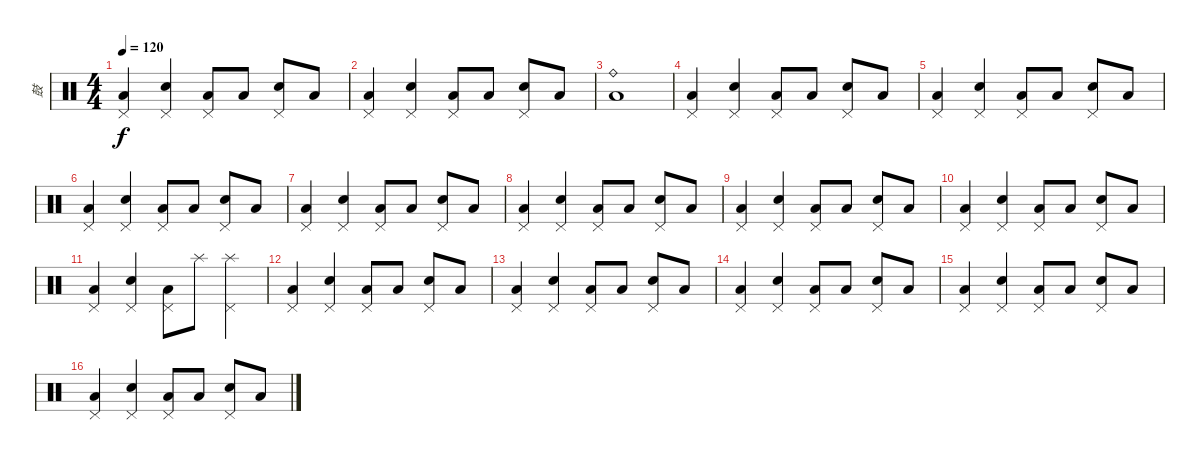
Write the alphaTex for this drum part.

\track ("鼓" "鼓") {instrument percussion}
\staff {score}
\articulation defaults
\ts (4 4)
\tempo 120
\clef neutral
\ks c
("Pedal Hi-Hat (hit)" "Low Floor Tom (hit)").4{dy f} ("Pedal Hi-Hat (hit)" "Snare (hit) 2").4 ("Pedal Hi-Hat (hit)" "Low Floor Tom (hit)").8 "Low Floor Tom (hit)".8 ("Pedal Hi-Hat (hit)" "Snare (hit) 2").8 "Low Floor Tom (hit)".8 |
("Pedal Hi-Hat (hit)" "Low Floor Tom (hit)").4 ("Pedal Hi-Hat (hit)" "Snare (hit) 2").4 ("Pedal Hi-Hat (hit)" "Low Floor Tom (hit)").8 "Low Floor Tom (hit)".8 ("Pedal Hi-Hat (hit)" "Snare (hit) 2").8 "Low Floor Tom (hit)".8 |
("Ride (bell)" "Low Floor Tom (hit)").1 |
("Pedal Hi-Hat (hit)" "Low Floor Tom (hit)").4 ("Pedal Hi-Hat (hit)" "Snare (hit) 2").4 ("Pedal Hi-Hat (hit)" "Low Floor Tom (hit)").8 "Low Floor Tom (hit)".8 ("Pedal Hi-Hat (hit)" "Snare (hit) 2").8 "Low Floor Tom (hit)".8 |
("Pedal Hi-Hat (hit)" "Low Floor Tom (hit)").4 ("Pedal Hi-Hat (hit)" "Snare (hit) 2").4 ("Pedal Hi-Hat (hit)" "Low Floor Tom (hit)").8 "Low Floor Tom (hit)".8 ("Pedal Hi-Hat (hit)" "Snare (hit) 2").8 "Low Floor Tom (hit)".8 |
("Pedal Hi-Hat (hit)" "Low Floor Tom (hit)").4 ("Pedal Hi-Hat (hit)" "Snare (hit) 2").4 ("Pedal Hi-Hat (hit)" "Low Floor Tom (hit)").8 "Low Floor Tom (hit)".8 ("Pedal Hi-Hat (hit)" "Snare (hit) 2").8 "Low Floor Tom (hit)".8 |
("Pedal Hi-Hat (hit)" "Low Floor Tom (hit)").4 ("Pedal Hi-Hat (hit)" "Snare (hit) 2").4 ("Pedal Hi-Hat (hit)" "Low Floor Tom (hit)").8 "Low Floor Tom (hit)".8 ("Pedal Hi-Hat (hit)" "Snare (hit) 2").8 "Low Floor Tom (hit)".8 |
("Pedal Hi-Hat (hit)" "Low Floor Tom (hit)").4 ("Pedal Hi-Hat (hit)" "Snare (hit) 2").4 ("Pedal Hi-Hat (hit)" "Low Floor Tom (hit)").8 "Low Floor Tom (hit)".8 ("Pedal Hi-Hat (hit)" "Snare (hit) 2").8 "Low Floor Tom (hit)".8 |
("Pedal Hi-Hat (hit)" "Low Floor Tom (hit)").4 ("Pedal Hi-Hat (hit)" "Snare (hit) 2").4 ("Pedal Hi-Hat (hit)" "Low Floor Tom (hit)").8 "Low Floor Tom (hit)".8 ("Pedal Hi-Hat (hit)" "Snare (hit) 2").8 "Low Floor Tom (hit)".8 |
("Pedal Hi-Hat (hit)" "Low Floor Tom (hit)").4 ("Pedal Hi-Hat (hit)" "Snare (hit) 2").4 ("Pedal Hi-Hat (hit)" "Low Floor Tom (hit)").8 "Low Floor Tom (hit)".8 ("Pedal Hi-Hat (hit)" "Snare (hit) 2").8 "Low Floor Tom (hit)".8 |
("Pedal Hi-Hat (hit)" "Low Floor Tom (hit)").4 ("Pedal Hi-Hat (hit)" "Snare (hit) 2").4 ("Pedal Hi-Hat (hit)" "Low Floor Tom (hit)").8 "Splash (hit)".8 ("Pedal Hi-Hat (hit)" "Splash (hit)").4 |
("Pedal Hi-Hat (hit)" "Low Floor Tom (hit)").4 ("Pedal Hi-Hat (hit)" "Snare (hit) 2").4 ("Pedal Hi-Hat (hit)" "Low Floor Tom (hit)").8 "Low Floor Tom (hit)".8 ("Pedal Hi-Hat (hit)" "Snare (hit) 2").8 "Low Floor Tom (hit)".8 |
("Pedal Hi-Hat (hit)" "Low Floor Tom (hit)").4 ("Pedal Hi-Hat (hit)" "Snare (hit) 2").4 ("Pedal Hi-Hat (hit)" "Low Floor Tom (hit)").8 "Low Floor Tom (hit)".8 ("Pedal Hi-Hat (hit)" "Snare (hit) 2").8 "Low Floor Tom (hit)".8 |
("Pedal Hi-Hat (hit)" "Low Floor Tom (hit)").4 ("Pedal Hi-Hat (hit)" "Snare (hit) 2").4 ("Pedal Hi-Hat (hit)" "Low Floor Tom (hit)").8 "Low Floor Tom (hit)".8 ("Pedal Hi-Hat (hit)" "Snare (hit) 2").8 "Low Floor Tom (hit)".8 |
("Pedal Hi-Hat (hit)" "Low Floor Tom (hit)").4 ("Pedal Hi-Hat (hit)" "Snare (hit) 2").4 ("Pedal Hi-Hat (hit)" "Low Floor Tom (hit)").8 "Low Floor Tom (hit)".8 ("Pedal Hi-Hat (hit)" "Snare (hit) 2").8 "Low Floor Tom (hit)".8 |
("Pedal Hi-Hat (hit)" "Low Floor Tom (hit)").4 ("Pedal Hi-Hat (hit)" "Snare (hit) 2").4 ("Pedal Hi-Hat (hit)" "Low Floor Tom (hit)").8 "Low Floor Tom (hit)".8 ("Pedal Hi-Hat (hit)" "Snare (hit) 2").8 "Low Floor Tom (hit)".8
